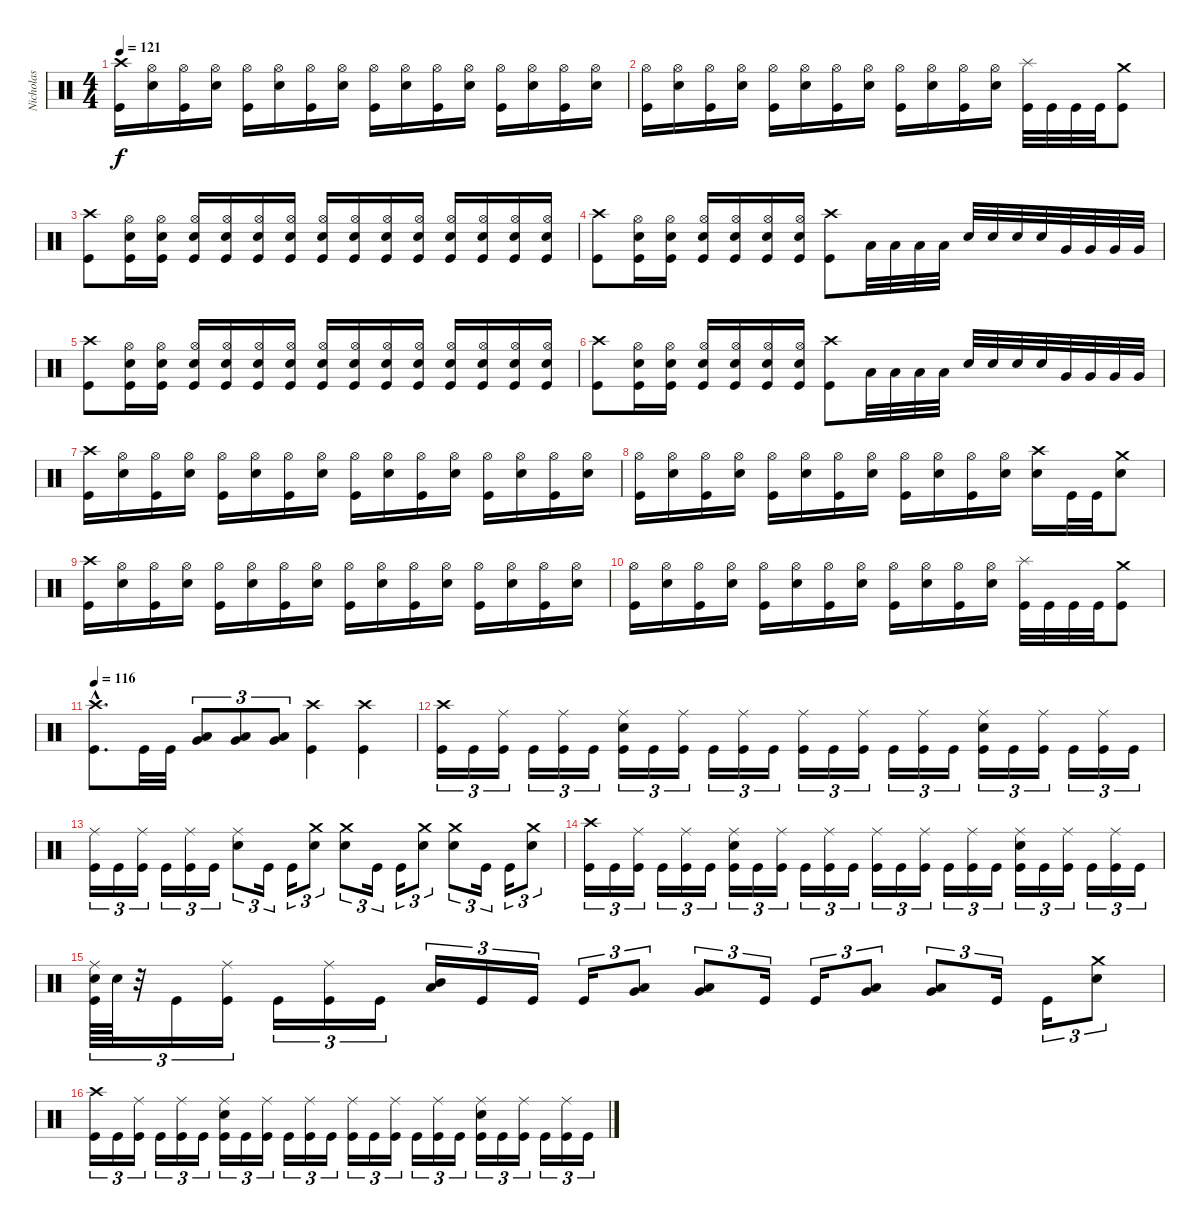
\track ("Nicholas" "Nicholas") {instrument percussion}
\staff {score}
\articulation defaults
\ts (4 4)
\tempo 121
\clef neutral
\ks c
("Crash high (hit)" "Kick (hit)").16{dy f} ("Hi-Hat (open)" "Electric Snare (hit)").16 ("Hi-Hat (open)" "Kick (hit)").16 ("Hi-Hat (open)" "Electric Snare (hit)").16 ("Hi-Hat (open)" "Kick (hit)").16 ("Hi-Hat (open)" "Electric Snare (hit)").16 ("Hi-Hat (open)" "Kick (hit)").16 ("Hi-Hat (open)" "Electric Snare (hit)").16 ("Hi-Hat (open)" "Kick (hit)").16 ("Hi-Hat (open)" "Electric Snare (hit)").16 ("Hi-Hat (open)" "Kick (hit)").16 ("Hi-Hat (open)" "Electric Snare (hit)").16 ("Hi-Hat (open)" "Kick (hit)").16 ("Hi-Hat (open)" "Electric Snare (hit)").16 ("Hi-Hat (open)" "Kick (hit)").16 ("Hi-Hat (open)" "Electric Snare (hit)").16 |
("Hi-Hat (open)" "Kick (hit)").16 ("Hi-Hat (open)" "Electric Snare (hit)").16 ("Hi-Hat (open)" "Kick (hit)").16 ("Hi-Hat (open)" "Electric Snare (hit)").16 ("Hi-Hat (open)" "Kick (hit)").16 ("Hi-Hat (open)" "Electric Snare (hit)").16 ("Hi-Hat (open)" "Kick (hit)").16 ("Hi-Hat (open)" "Electric Snare (hit)").16 ("Hi-Hat (open)" "Kick (hit)").16 ("Hi-Hat (open)" "Electric Snare (hit)").16 ("Hi-Hat (open)" "Kick (hit)").16 ("Hi-Hat (open)" "Electric Snare (hit)").16 ("Splash (hit)" "Kick (hit)").32 "Kick (hit)".32 "Kick (hit)".32 "Kick (hit)".32 ("Crash medium (hit)" "Kick (hit)").8 |
("Crash high (hit)" "Kick (hit)").8 ("Hi-Hat (open)" "Electric Snare (hit)" "Kick (hit)").16 ("Hi-Hat (open)" "Electric Snare (hit)" "Kick (hit)").16 ("Hi-Hat (open)" "Electric Snare (hit)" "Kick (hit)").16 ("Hi-Hat (open)" "Electric Snare (hit)" "Kick (hit)").16 ("Hi-Hat (open)" "Electric Snare (hit)" "Kick (hit)").16 ("Hi-Hat (open)" "Electric Snare (hit)" "Kick (hit)").16 ("Hi-Hat (open)" "Electric Snare (hit)" "Kick (hit)").16 ("Hi-Hat (open)" "Electric Snare (hit)" "Kick (hit)").16 ("Hi-Hat (open)" "Electric Snare (hit)" "Kick (hit)").16 ("Hi-Hat (open)" "Electric Snare (hit)" "Kick (hit)").16 ("Hi-Hat (open)" "Electric Snare (hit)" "Kick (hit)").16 ("Hi-Hat (open)" "Electric Snare (hit)" "Kick (hit)").16 ("Hi-Hat (open)" "Electric Snare (hit)" "Kick (hit)").16 ("Hi-Hat (open)" "Electric Snare (hit)" "Kick (hit)").16 |
("Crash high (hit)" "Kick (hit)").8 ("Hi-Hat (open)" "Electric Snare (hit)" "Kick (hit)").16 ("Hi-Hat (open)" "Electric Snare (hit)" "Kick (hit)").16 ("Hi-Hat (open)" "Electric Snare (hit)" "Kick (hit)").16 ("Hi-Hat (open)" "Electric Snare (hit)" "Kick (hit)").16 ("Hi-Hat (open)" "Electric Snare (hit)" "Kick (hit)").16 ("Hi-Hat (open)" "Electric Snare (hit)" "Kick (hit)").16 ("Crash high (hit)" "Kick (hit)").8 "Low Tom (hit)".32 "Low Tom (hit)".32 "Low Tom (hit)".32 "Low Tom (hit)".32 "Electric Snare (hit)".32 "Electric Snare (hit)".32 "Electric Snare (hit)".32 "Electric Snare (hit)".32 "Very Low Tom (hit)".32 "Very Low Tom (hit)".32 "Very Low Tom (hit)".32 "Very Low Tom (hit)".32 |
("Crash high (hit)" "Kick (hit)").8 ("Hi-Hat (open)" "Electric Snare (hit)" "Kick (hit)").16 ("Hi-Hat (open)" "Electric Snare (hit)" "Kick (hit)").16 ("Hi-Hat (open)" "Electric Snare (hit)" "Kick (hit)").16 ("Hi-Hat (open)" "Electric Snare (hit)" "Kick (hit)").16 ("Hi-Hat (open)" "Electric Snare (hit)" "Kick (hit)").16 ("Hi-Hat (open)" "Electric Snare (hit)" "Kick (hit)").16 ("Hi-Hat (open)" "Electric Snare (hit)" "Kick (hit)").16 ("Hi-Hat (open)" "Electric Snare (hit)" "Kick (hit)").16 ("Hi-Hat (open)" "Electric Snare (hit)" "Kick (hit)").16 ("Hi-Hat (open)" "Electric Snare (hit)" "Kick (hit)").16 ("Hi-Hat (open)" "Electric Snare (hit)" "Kick (hit)").16 ("Hi-Hat (open)" "Electric Snare (hit)" "Kick (hit)").16 ("Hi-Hat (open)" "Electric Snare (hit)" "Kick (hit)").16 ("Hi-Hat (open)" "Electric Snare (hit)" "Kick (hit)").16 |
("Crash high (hit)" "Kick (hit)").8 ("Hi-Hat (open)" "Electric Snare (hit)" "Kick (hit)").16 ("Hi-Hat (open)" "Electric Snare (hit)" "Kick (hit)").16 ("Hi-Hat (open)" "Electric Snare (hit)" "Kick (hit)").16 ("Hi-Hat (open)" "Electric Snare (hit)" "Kick (hit)").16 ("Hi-Hat (open)" "Electric Snare (hit)" "Kick (hit)").16 ("Hi-Hat (open)" "Electric Snare (hit)" "Kick (hit)").16 ("Crash high (hit)" "Kick (hit)").8 "Low Tom (hit)".32 "Low Tom (hit)".32 "Low Tom (hit)".32 "Low Tom (hit)".32 "Electric Snare (hit)".32 "Electric Snare (hit)".32 "Electric Snare (hit)".32 "Electric Snare (hit)".32 "Very Low Tom (hit)".32 "Very Low Tom (hit)".32 "Very Low Tom (hit)".32 "Very Low Tom (hit)".32 |
("Crash high (hit)" "Kick (hit)").16 ("Hi-Hat (open)" "Electric Snare (hit)").16 ("Hi-Hat (open)" "Kick (hit)").16 ("Hi-Hat (open)" "Electric Snare (hit)").16 ("Hi-Hat (open)" "Kick (hit)").16 ("Hi-Hat (open)" "Electric Snare (hit)").16 ("Hi-Hat (open)" "Kick (hit)").16 ("Hi-Hat (open)" "Electric Snare (hit)").16 ("Hi-Hat (open)" "Kick (hit)").16 ("Hi-Hat (open)" "Electric Snare (hit)").16 ("Hi-Hat (open)" "Kick (hit)").16 ("Hi-Hat (open)" "Electric Snare (hit)").16 ("Hi-Hat (open)" "Kick (hit)").16 ("Hi-Hat (open)" "Electric Snare (hit)").16 ("Hi-Hat (open)" "Kick (hit)").16 ("Hi-Hat (open)" "Electric Snare (hit)").16 |
("Hi-Hat (open)" "Kick (hit)").16 ("Hi-Hat (open)" "Electric Snare (hit)").16 ("Hi-Hat (open)" "Kick (hit)").16 ("Hi-Hat (open)" "Electric Snare (hit)").16 ("Hi-Hat (open)" "Kick (hit)").16 ("Hi-Hat (open)" "Electric Snare (hit)").16 ("Hi-Hat (open)" "Kick (hit)").16 ("Hi-Hat (open)" "Electric Snare (hit)").16 ("Hi-Hat (open)" "Kick (hit)").16 ("Hi-Hat (open)" "Electric Snare (hit)").16 ("Hi-Hat (open)" "Kick (hit)").16 ("Hi-Hat (open)" "Electric Snare (hit)").16 ("Crash high (hit)" "Electric Snare (hit)").16 "Kick (hit)".32 "Kick (hit)".32 ("Crash medium (hit)" "Electric Snare (hit)").8 |
("Crash high (hit)" "Kick (hit)").16 ("Hi-Hat (open)" "Electric Snare (hit)").16 ("Hi-Hat (open)" "Kick (hit)").16 ("Hi-Hat (open)" "Electric Snare (hit)").16 ("Hi-Hat (open)" "Kick (hit)").16 ("Hi-Hat (open)" "Electric Snare (hit)").16 ("Hi-Hat (open)" "Kick (hit)").16 ("Hi-Hat (open)" "Electric Snare (hit)").16 ("Hi-Hat (open)" "Kick (hit)").16 ("Hi-Hat (open)" "Electric Snare (hit)").16 ("Hi-Hat (open)" "Kick (hit)").16 ("Hi-Hat (open)" "Electric Snare (hit)").16 ("Hi-Hat (open)" "Kick (hit)").16 ("Hi-Hat (open)" "Electric Snare (hit)").16 ("Hi-Hat (open)" "Kick (hit)").16 ("Hi-Hat (open)" "Electric Snare (hit)").16 |
("Hi-Hat (open)" "Kick (hit)").16 ("Hi-Hat (open)" "Electric Snare (hit)").16 ("Hi-Hat (open)" "Kick (hit)").16 ("Hi-Hat (open)" "Electric Snare (hit)").16 ("Hi-Hat (open)" "Kick (hit)").16 ("Hi-Hat (open)" "Electric Snare (hit)").16 ("Hi-Hat (open)" "Kick (hit)").16 ("Hi-Hat (open)" "Electric Snare (hit)").16 ("Hi-Hat (open)" "Kick (hit)").16 ("Hi-Hat (open)" "Electric Snare (hit)").16 ("Hi-Hat (open)" "Kick (hit)").16 ("Hi-Hat (open)" "Electric Snare (hit)").16 ("Splash (hit)" "Kick (hit)").32 "Kick (hit)".32 "Kick (hit)".32 "Kick (hit)".32 ("Crash medium (hit)" "Kick (hit)").8 |
\tempo 116
("Crash high (hit)"{hac} "Kick (hit)"{hac}).8{d} "Kick (hit)".32 "Kick (hit)".32 ("Low Tom (hit)" "Very Low Tom (hit)").8{tu (3 2) bd 60} ("Low Tom (hit)" "Very Low Tom (hit)").8{tu (3 2) bd 60} ("Low Tom (hit)" "Very Low Tom (hit)").8{tu (3 2) bd 60} ("Crash high (hit)" "Kick (hit)").4 ("Crash high (hit)" "Kick (hit)").4 |
("Crash high (hit)" "Kick (hit)").16{tu (3 2)} "Kick (hit)".16{tu (3 2)} ("Ride (middle)" "Kick (hit)").16{tu (3 2)} "Kick (hit)".16{tu (3 2)} ("Ride (middle)" "Kick (hit)").16{tu (3 2)} "Kick (hit)".16{tu (3 2)} ("Ride (middle)" "Electric Snare (hit)" "Kick (hit)").16{tu (3 2)} "Kick (hit)".16{tu (3 2)} ("Ride (middle)" "Kick (hit)").16{tu (3 2)} "Kick (hit)".16{tu (3 2)} ("Ride (middle)" "Kick (hit)").16{tu (3 2)} "Kick (hit)".16{tu (3 2)} ("Ride (middle)" "Kick (hit)").16{tu (3 2)} "Kick (hit)".16{tu (3 2)} ("Ride (middle)" "Kick (hit)").16{tu (3 2)} "Kick (hit)".16{tu (3 2)} ("Ride (middle)" "Kick (hit)").16{tu (3 2)} "Kick (hit)".16{tu (3 2)} ("Ride (middle)" "Electric Snare (hit)" "Kick (hit)").16{tu (3 2)} "Kick (hit)".16{tu (3 2)} ("Ride (middle)" "Kick (hit)").16{tu (3 2)} "Kick (hit)".16{tu (3 2)} ("Ride (middle)" "Kick (hit)").16{tu (3 2)} "Kick (hit)".16{tu (3 2)} |
("Ride (middle)" "Kick (hit)").16{tu (3 2)} "Kick (hit)".16{tu (3 2)} ("Ride (middle)" "Kick (hit)").16{tu (3 2)} "Kick (hit)".16{tu (3 2)} ("Ride (middle)" "Kick (hit)").16{tu (3 2)} "Kick (hit)".16{tu (3 2)} ("Ride (middle)" "Electric Snare (hit)").8{tu (3 2)} "Kick (hit)".16{tu (3 2)} "Kick (hit)".16{tu (3 2)} ("Crash medium (hit)" "Electric Snare (hit)").8{tu (3 2)} ("Crash medium (hit)" "Electric Snare (hit)").8{tu (3 2)} "Kick (hit)".16{tu (3 2)} "Kick (hit)".16{tu (3 2)} ("Crash medium (hit)" "Electric Snare (hit)").8{tu (3 2)} ("Crash medium (hit)" "Electric Snare (hit)").8{tu (3 2)} "Kick (hit)".16{tu (3 2)} "Kick (hit)".16{tu (3 2)} ("Crash medium (hit)" "Electric Snare (hit)").8{tu (3 2)} |
("Crash high (hit)" "Kick (hit)").16{tu (3 2)} "Kick (hit)".16{tu (3 2)} ("Ride (middle)" "Kick (hit)").16{tu (3 2)} "Kick (hit)".16{tu (3 2)} ("Ride (middle)" "Kick (hit)").16{tu (3 2)} "Kick (hit)".16{tu (3 2)} ("Ride (middle)" "Electric Snare (hit)" "Kick (hit)").16{tu (3 2)} "Kick (hit)".16{tu (3 2)} ("Ride (middle)" "Kick (hit)").16{tu (3 2)} "Kick (hit)".16{tu (3 2)} ("Ride (middle)" "Kick (hit)").16{tu (3 2)} "Kick (hit)".16{tu (3 2)} ("Ride (middle)" "Kick (hit)").16{tu (3 2)} "Kick (hit)".16{tu (3 2)} ("Ride (middle)" "Kick (hit)").16{tu (3 2)} "Kick (hit)".16{tu (3 2)} ("Ride (middle)" "Kick (hit)").16{tu (3 2)} "Kick (hit)".16{tu (3 2)} ("Ride (middle)" "Electric Snare (hit)" "Kick (hit)").16{tu (3 2)} "Kick (hit)".16{tu (3 2)} ("Ride (middle)" "Kick (hit)").16{tu (3 2)} "Kick (hit)".16{tu (3 2)} ("Ride (middle)" "Kick (hit)").16{tu (3 2)} "Kick (hit)".16{tu (3 2)} |
("Ride (middle)" "Electric Snare (hit)" "Kick (hit)").64{tu (3 2)} "Electric Snare (hit)".64{tu (3 2)} r.32{tu (3 2)} "Kick (hit)".16{tu (3 2)} ("Ride (middle)" "Kick (hit)").16{tu (3 2)} "Kick (hit)".16{tu (3 2)} ("Ride (middle)" "Kick (hit)").16{tu (3 2)} "Kick (hit)".16{tu (3 2)} ("Mid Tom (hit)" "Low Tom (hit)").16{tu (3 2) bd 60} "Kick (hit)".16{tu (3 2)} "Kick (hit)".16{tu (3 2)} "Kick (hit)".16{tu (3 2)} ("Low Tom (hit)" "Very Low Tom (hit)").8{tu (3 2) bu 60} ("Low Tom (hit)" "Very Low Tom (hit)").8{tu (3 2) bu 60} "Kick (hit)".16{tu (3 2)} "Kick (hit)".16{tu (3 2)} ("Low Tom (hit)" "Very Low Tom (hit)").8{tu (3 2) bu 60} ("Low Tom (hit)" "Very Low Tom (hit)").8{tu (3 2) bu 60} "Kick (hit)".16{tu (3 2)} "Kick (hit)".16{tu (3 2)} ("Crash medium (hit)" "Electric Snare (hit)").8{tu (3 2)} |
("Crash high (hit)" "Kick (hit)").16{tu (3 2)} "Kick (hit)".16{tu (3 2)} ("Ride (middle)" "Kick (hit)").16{tu (3 2)} "Kick (hit)".16{tu (3 2)} ("Ride (middle)" "Kick (hit)").16{tu (3 2)} "Kick (hit)".16{tu (3 2)} ("Ride (middle)" "Electric Snare (hit)" "Kick (hit)").16{tu (3 2)} "Kick (hit)".16{tu (3 2)} ("Ride (middle)" "Kick (hit)").16{tu (3 2)} "Kick (hit)".16{tu (3 2)} ("Ride (middle)" "Kick (hit)").16{tu (3 2)} "Kick (hit)".16{tu (3 2)} ("Ride (middle)" "Kick (hit)").16{tu (3 2)} "Kick (hit)".16{tu (3 2)} ("Ride (middle)" "Kick (hit)").16{tu (3 2)} "Kick (hit)".16{tu (3 2)} ("Ride (middle)" "Kick (hit)").16{tu (3 2)} "Kick (hit)".16{tu (3 2)} ("Ride (middle)" "Electric Snare (hit)" "Kick (hit)").16{tu (3 2)} "Kick (hit)".16{tu (3 2)} ("Ride (middle)" "Kick (hit)").16{tu (3 2)} "Kick (hit)".16{tu (3 2)} ("Ride (middle)" "Kick (hit)").16{tu (3 2)} "Kick (hit)".16{tu (3 2)}
